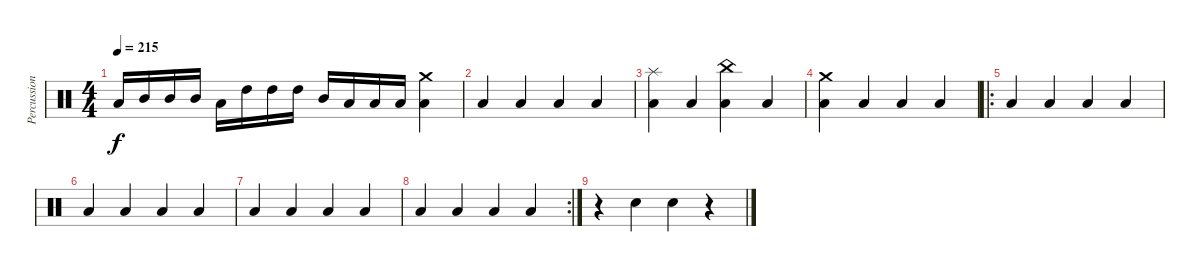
\track ("Percussion" "Percussion") {instrument percussion}
\staff {score}
\articulation defaults
\ts (4 4)
\tempo 215
\clef neutral
\ks c "Low Tom (hit)".16{dy f} "Mid Tom (hit)".16 "Mid Tom (hit)".16 "Mid Tom (hit)".16 "Low Tom (hit)".16 "High Tom (hit)".16 "High Tom (hit)".16 "High Tom (hit)".16 "Mid Tom (hit)".16 "Low Tom (hit)".16 "Low Tom (hit)".16 "Low Tom (hit)".16
("Crash medium (hit)" "Low Tom (hit)").4 |
"Low Tom (hit)".4 "Low Tom (hit)".4 "Low Tom (hit)".4 "Low Tom (hit)".4 |
("Splash (hit)" "Low Tom (hit)").4 "Low Tom (hit)".4 ("China (hit)" "Low Tom (hit)").4 "Low Tom (hit)".4 |
("Crash medium (hit)" "Low Tom (hit)").4 "Low Tom (hit)".4 "Low Tom (hit)".4 "Low Tom (hit)".4 |
\ro "Low Tom (hit)".4 "Low Tom (hit)".4 "Low Tom (hit)".4 "Low Tom (hit)".4
|
"Low Tom (hit)".4 "Low Tom (hit)".4 "Low Tom (hit)".4 "Low Tom (hit)".4 |
"Low Tom (hit)".4 "Low Tom (hit)".4 "Low Tom (hit)".4 "Low Tom (hit)".4 |
\rc 2 "Low Tom (hit)".4 "Low Tom (hit)".4 "Low Tom (hit)".4 "Low Tom (hit)".4
|
r.4 "Snare (hit) 2".4 "Snare (hit) 2".4 r.4
